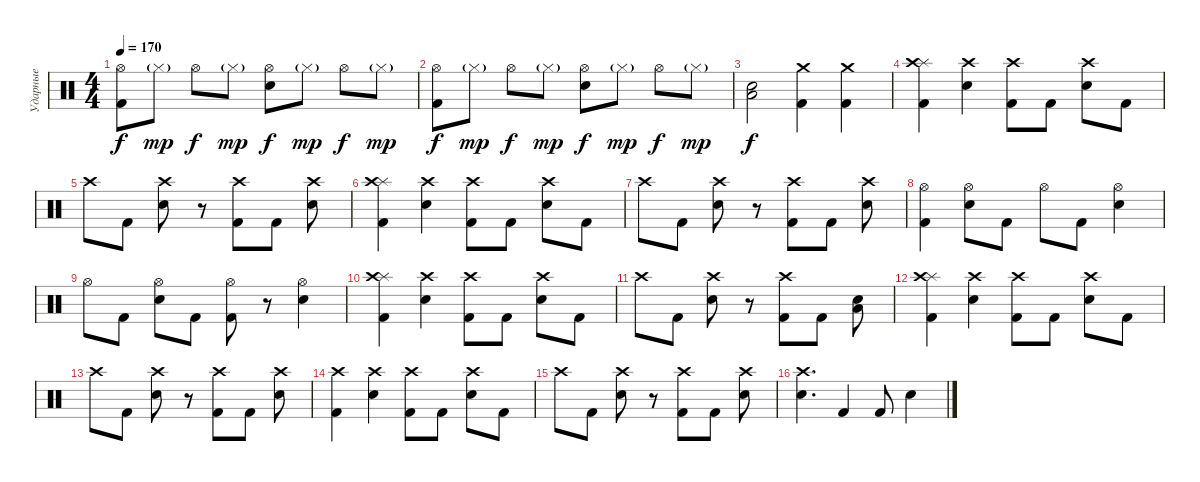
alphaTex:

\track ("Ударные" "Ударные") {instrument percussion}
\staff {score}
\articulation defaults
\ts (4 4)
\tempo 170
\clef neutral
\ks c
("Hi-Hat (open)" "Kick (hit) 2").8{dy f} "Hi-Hat (closed)"{g}.8{dy mp} "Hi-Hat (open)".8{dy f} "Hi-Hat (closed)"{g}.8{dy mp} ("Hi-Hat (open)" "Snare (hit) 2").8{dy f} "Hi-Hat (closed)"{g}.8{dy mp} "Hi-Hat (open)".8{dy f} "Hi-Hat (closed)"{g}.8{dy mp} |
("Hi-Hat (open)" "Kick (hit) 2").8{dy f} "Hi-Hat (closed)"{g}.8{dy mp} "Hi-Hat (open)".8{dy f} "Hi-Hat (closed)"{g}.8{dy mp} ("Hi-Hat (open)" "Snare (hit) 2").8{dy f} "Hi-Hat (closed)"{g}.8{dy mp} "Hi-Hat (open)".8{dy f} "Hi-Hat (closed)"{g}.8{dy mp} |
("Low Tom (hit)" "Snare (hit) 2").2{dy f} ("Crash medium (hit)" "Kick (hit) 2").4 ("Crash medium (hit)" "Kick (hit) 2").4 |
("Splash (hit)" "Crash high (hit)" "Kick (hit) 2").4 ("Crash high (hit)" "Snare (hit) 2").4 ("Crash high (hit)" "Kick (hit) 2").8 "Kick (hit) 2".8 ("Crash high (hit)" "Snare (hit) 2").8 "Kick (hit) 2".8 |
"Crash high (hit)".8 "Kick (hit) 2".8 ("Crash high (hit)" "Snare (hit) 2").8 r.8 ("Crash high (hit)" "Kick (hit) 2").8 "Kick (hit) 2".8 ("Crash high (hit)" "Snare (hit) 2").8 |
("Splash (hit)" "Crash high (hit)" "Kick (hit) 2").4 ("Crash high (hit)" "Snare (hit) 2").4 ("Crash high (hit)" "Kick (hit) 2").8 "Kick (hit) 2".8 ("Crash high (hit)" "Snare (hit) 2").8 "Kick (hit) 2".8 |
"Crash high (hit)".8 "Kick (hit) 2".8 ("Crash high (hit)" "Snare (hit) 2").8 r.8 ("Crash high (hit)" "Kick (hit) 2").8 "Kick (hit) 2".8 ("Crash high (hit)" "Snare (hit) 2").8 |
("Hi-Hat (open)" "Kick (hit) 2").4 ("Hi-Hat (open)" "Snare (hit) 2").8 "Kick (hit) 2".8 "Hi-Hat (open)".8 "Kick (hit) 2".8 ("Hi-Hat (open)" "Snare (hit) 2").4 |
"Hi-Hat (open)".8 "Kick (hit) 2".8 ("Hi-Hat (open)" "Snare (hit) 2").8 "Kick (hit) 2".8 ("Hi-Hat (open)" "Kick (hit) 2").8 r.8 ("Hi-Hat (open)" "Snare (hit) 2").4 |
("Splash (hit)" "Crash high (hit)" "Kick (hit) 2").4 ("Crash high (hit)" "Snare (hit) 2").4 ("Crash high (hit)" "Kick (hit) 2").8 "Kick (hit) 2".8 ("Crash high (hit)" "Snare (hit) 2").8 "Kick (hit) 2".8 |
"Crash high (hit)".8 "Kick (hit) 2".8 ("Crash high (hit)" "Snare (hit) 2").8 r.8 ("Crash high (hit)" "Kick (hit) 2").8 "Kick (hit) 2".8 ("Low Tom (hit)" "Snare (hit) 2").8 |
("Splash (hit)" "Crash high (hit)" "Kick (hit) 2").4 ("Crash high (hit)" "Snare (hit) 2").4 ("Crash high (hit)" "Kick (hit) 2").8 "Kick (hit) 2".8 ("Crash high (hit)" "Snare (hit) 2").8 "Kick (hit) 2".8 |
"Crash high (hit)".8 "Kick (hit) 2".8 ("Crash high (hit)" "Snare (hit) 2").8 r.8 ("Crash high (hit)" "Kick (hit) 2").8 "Kick (hit) 2".8 ("Crash high (hit)" "Snare (hit) 2").8 |
("Crash high (hit)" "Kick (hit) 2").4 ("Crash high (hit)" "Snare (hit) 2").4 ("Crash high (hit)" "Kick (hit) 2").8 "Kick (hit) 2".8 ("Crash high (hit)" "Snare (hit) 2").8 "Kick (hit) 2".8 |
"Crash high (hit)".8 "Kick (hit) 2".8 ("Crash high (hit)" "Snare (hit) 2").8 r.8 ("Crash high (hit)" "Kick (hit) 2").8 "Kick (hit) 2".8 ("Crash high (hit)" "Snare (hit) 2").8 |
("Crash high (hit)" "Snare (hit) 2").4{d} "Kick (hit) 2".4 "Kick (hit) 2".8 "Snare (hit) 2".4
